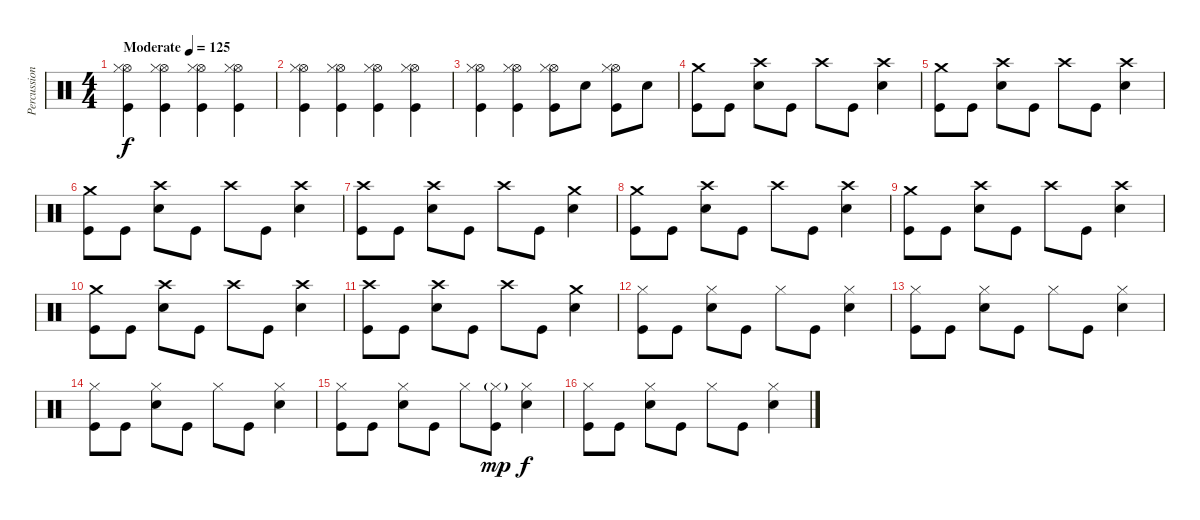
\track ("Percussion" "Percussion") {instrument percussion}
\staff {score}
\articulation defaults
\ts (4 4)
\tempo (125 "Moderate")
\clef neutral
\ks c
("Hi-Hat (open)" "Kick (hit)" "Hi-Hat (closed)").4{dy f} ("Hi-Hat (open)" "Kick (hit)" "Hi-Hat (closed)").4 ("Hi-Hat (open)" "Kick (hit)" "Hi-Hat (closed)").4 ("Hi-Hat (open)" "Kick (hit)" "Hi-Hat (closed)").4 |
("Hi-Hat (open)" "Kick (hit)" "Hi-Hat (closed)").4 ("Hi-Hat (open)" "Kick (hit)" "Hi-Hat (closed)").4 ("Hi-Hat (open)" "Kick (hit)" "Hi-Hat (closed)").4 ("Hi-Hat (open)" "Kick (hit)" "Hi-Hat (closed)").4 |
("Hi-Hat (open)" "Kick (hit)" "Hi-Hat (closed)").4 ("Hi-Hat (open)" "Kick (hit)" "Hi-Hat (closed)").4 ("Hi-Hat (open)" "Kick (hit)" "Hi-Hat (closed)").8 "Snare (hit) 2".8 ("Hi-Hat (open)" "Hi-Hat (closed)" "Kick (hit)").8 "Snare (hit) 2".8 |
("Crash medium (hit)" "Kick (hit)").8 "Kick (hit)".8 ("Crash high (hit)" "Snare (hit) 2").8 "Kick (hit)".8 "Crash high (hit)".8 "Kick (hit)".8 ("Snare (hit) 2" "Crash high (hit)").4 |
("Crash medium (hit)" "Kick (hit)").8 "Kick (hit)".8 ("Crash high (hit)" "Snare (hit) 2").8 "Kick (hit)".8 "Crash high (hit)".8 "Kick (hit)".8 ("Snare (hit) 2" "Crash high (hit)").4 |
("Crash medium (hit)" "Kick (hit)").8 "Kick (hit)".8 ("Crash high (hit)" "Snare (hit) 2").8 "Kick (hit)".8 "Crash high (hit)".8 "Kick (hit)".8 ("Snare (hit) 2" "Crash high (hit)").4 |
("Crash high (hit)" "Kick (hit)").8 "Kick (hit)".8 ("Crash high (hit)" "Snare (hit) 2").8 "Kick (hit)".8 "Crash high (hit)".8 "Kick (hit)".8 ("Snare (hit) 2" "Crash medium (hit)").4 |
("Crash medium (hit)" "Kick (hit)").8 "Kick (hit)".8 ("Crash high (hit)" "Snare (hit) 2").8 "Kick (hit)".8 "Crash high (hit)".8 "Kick (hit)".8 ("Snare (hit) 2" "Crash high (hit)").4 |
("Crash medium (hit)" "Kick (hit)").8 "Kick (hit)".8 ("Crash high (hit)" "Snare (hit) 2").8 "Kick (hit)".8 "Crash high (hit)".8 "Kick (hit)".8 ("Snare (hit) 2" "Crash high (hit)").4 |
("Crash medium (hit)" "Kick (hit)").8 "Kick (hit)".8 ("Crash high (hit)" "Snare (hit) 2").8 "Kick (hit)".8 "Crash high (hit)".8 "Kick (hit)".8 ("Snare (hit) 2" "Crash high (hit)").4 |
("Crash high (hit)" "Kick (hit)").8 "Kick (hit)".8 ("Crash high (hit)" "Snare (hit) 2").8 "Kick (hit)".8 "Crash high (hit)".8 "Kick (hit)".8 ("Snare (hit) 2" "Crash medium (hit)").4 |
("Hi-Hat (closed)" "Kick (hit)").8 "Kick (hit)".8 ("Hi-Hat (closed)" "Snare (hit) 2").8 "Kick (hit)".8 "Hi-Hat (closed)".8 "Kick (hit)".8 ("Snare (hit) 2" "Hi-Hat (closed)").4 |
("Hi-Hat (closed)" "Kick (hit)").8 "Kick (hit)".8 ("Hi-Hat (closed)" "Snare (hit) 2").8 "Kick (hit)".8 "Hi-Hat (closed)".8 "Kick (hit)".8 ("Snare (hit) 2" "Hi-Hat (closed)").4 |
("Hi-Hat (closed)" "Kick (hit)").8 "Kick (hit)".8 ("Hi-Hat (closed)" "Snare (hit) 2").8 "Kick (hit)".8 "Hi-Hat (closed)".8 "Kick (hit)".8 ("Snare (hit) 2" "Hi-Hat (closed)").4 |
("Hi-Hat (closed)" "Kick (hit)").8 "Kick (hit)".8 ("Hi-Hat (closed)" "Snare (hit) 2").8 "Kick (hit)".8 "Hi-Hat (closed)".8 ("Hi-Hat (closed)"{g} "Kick (hit)").8{dy mp} ("Snare (hit) 2" "Hi-Hat (closed)").4{dy f} |
("Hi-Hat (closed)" "Kick (hit)").8 "Kick (hit)".8 ("Hi-Hat (closed)" "Snare (hit) 2").8 "Kick (hit)".8 "Hi-Hat (closed)".8 "Kick (hit)".8 ("Snare (hit) 2" "Hi-Hat (closed)").4
